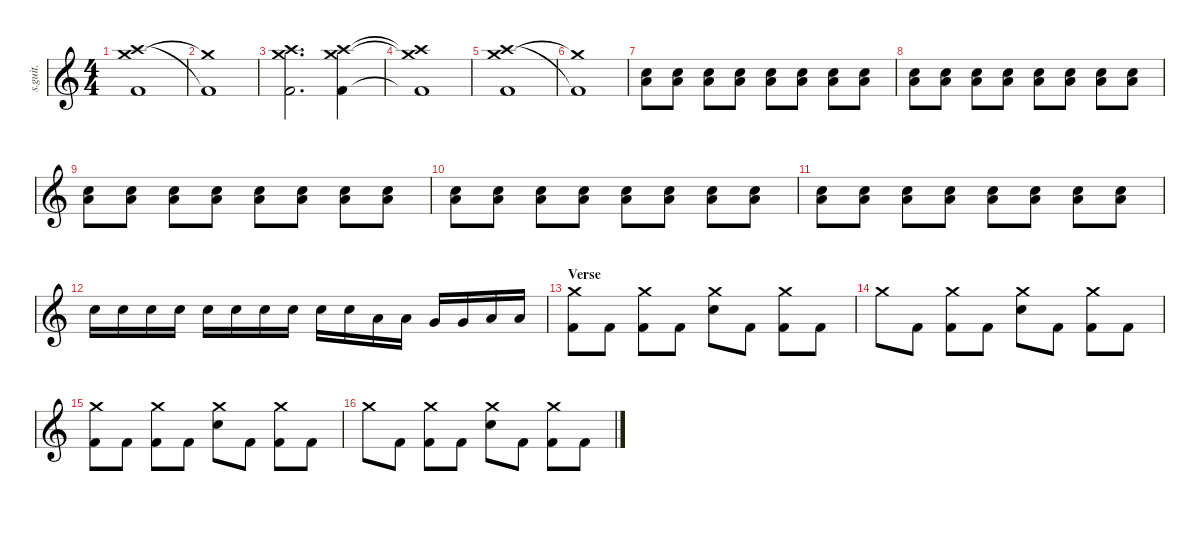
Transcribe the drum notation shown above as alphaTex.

\defaultSystemsLayout 4
\hideDynamics
\bracketExtendMode nobrackets
\track ("Taylor Hawkins" "s.guit.") {instrument percussion}
\staff {score}
\articulation defaults
\ts (4 4)
\tempo (154 hide)
\clef g2
\ks c
("Crash medium (hit)" "Crash high (hit)" "Kick (hit) 2").1{lyrics (0 "") lyrics (1 "") lyrics (2 "") lyrics (3 "") lyrics (4 "") dy f} |
("Crash medium (hit)"{t} "Kick (hit) 2"{t}).1{lyrics (0 "") lyrics (1 "") lyrics (2 "") lyrics (3 "") lyrics (4 "")} |
("Crash medium (hit)" "Crash high (hit)" "Kick (hit) 2").2{d lyrics (0 "") lyrics (1 "") lyrics (2 "") lyrics (3 "") lyrics (4 "")} ("Crash medium (hit)" "Crash high (hit)" "Kick (hit) 2").4{lyrics (0 "") lyrics (1 "") lyrics (2 "") lyrics (3 "") lyrics (4 "")} |
("Crash medium (hit)"{t} "Crash high (hit)"{t} "Kick (hit) 2"{t}).1{lyrics (0 "") lyrics (1 "") lyrics (2 "") lyrics (3 "") lyrics (4 "")} |
("Crash medium (hit)" "Crash high (hit)" "Kick (hit) 2").1{lyrics (0 "") lyrics (1 "") lyrics (2 "") lyrics (3 "") lyrics (4 "")} |
("Crash medium (hit)"{t} "Kick (hit) 2"{t}).1{lyrics (0 "") lyrics (1 "") lyrics (2 "") lyrics (3 "") lyrics (4 "")} |
("Electric Snare (hit)" "Low Floor Tom (hit)").8{lyrics (0 "") lyrics (1 "") lyrics (2 "") lyrics (3 "") lyrics (4 "")} ("Electric Snare (hit)" "Low Floor Tom (hit)").8{lyrics (0 "") lyrics (1 "") lyrics (2 "") lyrics (3 "") lyrics (4 "")} ("Electric Snare (hit)" "Low Floor Tom (hit)").8{lyrics (0 "") lyrics (1 "") lyrics (2 "") lyrics (3 "") lyrics (4 "")} ("Electric Snare (hit)" "Low Floor Tom (hit)").8{lyrics (0 "") lyrics (1 "") lyrics (2 "") lyrics (3 "") lyrics (4 "")} ("Electric Snare (hit)" "Low Floor Tom (hit)").8{lyrics (0 "") lyrics (1 "") lyrics (2 "") lyrics (3 "") lyrics (4 "")} ("Electric Snare (hit)" "Low Floor Tom (hit)").8{lyrics (0 "") lyrics (1 "") lyrics (2 "") lyrics (3 "") lyrics (4 "")} ("Electric Snare (hit)" "Low Floor Tom (hit)").8{lyrics (0 "") lyrics (1 "") lyrics (2 "") lyrics (3 "") lyrics (4 "")} ("Electric Snare (hit)" "Low Floor Tom (hit)").8{lyrics (0 "") lyrics (1 "") lyrics (2 "") lyrics (3 "") lyrics (4 "")} |
("Electric Snare (hit)" "Low Floor Tom (hit)").8{lyrics (0 "") lyrics (1 "") lyrics (2 "") lyrics (3 "") lyrics (4 "")} ("Electric Snare (hit)" "Low Floor Tom (hit)").8{lyrics (0 "") lyrics (1 "") lyrics (2 "") lyrics (3 "") lyrics (4 "")} ("Electric Snare (hit)" "Low Floor Tom (hit)").8{lyrics (0 "") lyrics (1 "") lyrics (2 "") lyrics (3 "") lyrics (4 "")} ("Electric Snare (hit)" "Low Floor Tom (hit)").8{lyrics (0 "") lyrics (1 "") lyrics (2 "") lyrics (3 "") lyrics (4 "")} ("Electric Snare (hit)" "Low Floor Tom (hit)").8{lyrics (0 "") lyrics (1 "") lyrics (2 "") lyrics (3 "") lyrics (4 "")} ("Electric Snare (hit)" "Low Floor Tom (hit)").8{lyrics (0 "") lyrics (1 "") lyrics (2 "") lyrics (3 "") lyrics (4 "")} ("Electric Snare (hit)" "Low Floor Tom (hit)").8{lyrics (0 "") lyrics (1 "") lyrics (2 "") lyrics (3 "") lyrics (4 "")} ("Electric Snare (hit)" "Low Floor Tom (hit)").8{lyrics (0 "") lyrics (1 "") lyrics (2 "") lyrics (3 "") lyrics (4 "")} |
("Electric Snare (hit)" "Low Floor Tom (hit)").8{lyrics (0 "") lyrics (1 "") lyrics (2 "") lyrics (3 "") lyrics (4 "")} ("Electric Snare (hit)" "Low Floor Tom (hit)").8{lyrics (0 "") lyrics (1 "") lyrics (2 "") lyrics (3 "") lyrics (4 "")} ("Electric Snare (hit)" "Low Floor Tom (hit)").8{lyrics (0 "") lyrics (1 "") lyrics (2 "") lyrics (3 "") lyrics (4 "")} ("Electric Snare (hit)" "Low Floor Tom (hit)").8{lyrics (0 "") lyrics (1 "") lyrics (2 "") lyrics (3 "") lyrics (4 "")} ("Electric Snare (hit)" "Low Floor Tom (hit)").8{lyrics (0 "") lyrics (1 "") lyrics (2 "") lyrics (3 "") lyrics (4 "")} ("Electric Snare (hit)" "Low Floor Tom (hit)").8{lyrics (0 "") lyrics (1 "") lyrics (2 "") lyrics (3 "") lyrics (4 "")} ("Electric Snare (hit)" "Low Floor Tom (hit)").8{lyrics (0 "") lyrics (1 "") lyrics (2 "") lyrics (3 "") lyrics (4 "")} ("Electric Snare (hit)" "Low Floor Tom (hit)").8{lyrics (0 "") lyrics (1 "") lyrics (2 "") lyrics (3 "") lyrics (4 "")} |
("Electric Snare (hit)" "Low Floor Tom (hit)").8{lyrics (0 "") lyrics (1 "") lyrics (2 "") lyrics (3 "") lyrics (4 "")} ("Electric Snare (hit)" "Low Floor Tom (hit)").8{lyrics (0 "") lyrics (1 "") lyrics (2 "") lyrics (3 "") lyrics (4 "")} ("Electric Snare (hit)" "Low Floor Tom (hit)").8{lyrics (0 "") lyrics (1 "") lyrics (2 "") lyrics (3 "") lyrics (4 "")} ("Electric Snare (hit)" "Low Floor Tom (hit)").8{lyrics (0 "") lyrics (1 "") lyrics (2 "") lyrics (3 "") lyrics (4 "")} ("Electric Snare (hit)" "Low Floor Tom (hit)").8{lyrics (0 "") lyrics (1 "") lyrics (2 "") lyrics (3 "") lyrics (4 "")} ("Electric Snare (hit)" "Low Floor Tom (hit)").8{lyrics (0 "") lyrics (1 "") lyrics (2 "") lyrics (3 "") lyrics (4 "")} ("Electric Snare (hit)" "Low Floor Tom (hit)").8{lyrics (0 "") lyrics (1 "") lyrics (2 "") lyrics (3 "") lyrics (4 "")} ("Electric Snare (hit)" "Low Floor Tom (hit)").8{lyrics (0 "") lyrics (1 "") lyrics (2 "") lyrics (3 "") lyrics (4 "")} |
("Electric Snare (hit)" "Low Floor Tom (hit)").8{lyrics (0 "") lyrics (1 "") lyrics (2 "") lyrics (3 "") lyrics (4 "")} ("Electric Snare (hit)" "Low Floor Tom (hit)").8{lyrics (0 "") lyrics (1 "") lyrics (2 "") lyrics (3 "") lyrics (4 "")} ("Electric Snare (hit)" "Low Floor Tom (hit)").8{lyrics (0 "") lyrics (1 "") lyrics (2 "") lyrics (3 "") lyrics (4 "")} ("Electric Snare (hit)" "Low Floor Tom (hit)").8{lyrics (0 "") lyrics (1 "") lyrics (2 "") lyrics (3 "") lyrics (4 "")} ("Electric Snare (hit)" "Low Floor Tom (hit)").8{lyrics (0 "") lyrics (1 "") lyrics (2 "") lyrics (3 "") lyrics (4 "")} ("Electric Snare (hit)" "Low Floor Tom (hit)").8{lyrics (0 "") lyrics (1 "") lyrics (2 "") lyrics (3 "") lyrics (4 "")} ("Electric Snare (hit)" "Low Floor Tom (hit)").8{lyrics (0 "") lyrics (1 "") lyrics (2 "") lyrics (3 "") lyrics (4 "")} ("Electric Snare (hit)" "Low Floor Tom (hit)").8{lyrics (0 "") lyrics (1 "") lyrics (2 "") lyrics (3 "") lyrics (4 "")} |
"Electric Snare (hit)".16{lyrics (0 "") lyrics (1 "") lyrics (2 "") lyrics (3 "") lyrics (4 "")} "Electric Snare (hit)".16{lyrics (0 "") lyrics (1 "") lyrics (2 "") lyrics (3 "") lyrics (4 "")} "Electric Snare (hit)".16{lyrics (0 "") lyrics (1 "") lyrics (2 "") lyrics (3 "") lyrics (4 "")} "Electric Snare (hit)".16{lyrics (0 "") lyrics (1 "") lyrics (2 "") lyrics (3 "") lyrics (4 "")} "Electric Snare (hit)".16{lyrics (0 "") lyrics (1 "") lyrics (2 "") lyrics (3 "") lyrics (4 "")} "Electric Snare (hit)".16{lyrics (0 "") lyrics (1 "") lyrics (2 "") lyrics (3 "") lyrics (4 "")} "Electric Snare (hit)".16{lyrics (0 "") lyrics (1 "") lyrics (2 "") lyrics (3 "") lyrics (4 "")} "Electric Snare (hit)".16{lyrics (0 "") lyrics (1 "") lyrics (2 "") lyrics (3 "") lyrics (4 "")} "Electric Snare (hit)".16{lyrics (0 "") lyrics (1 "") lyrics (2 "") lyrics (3 "") lyrics (4 "")} "Electric Snare (hit)".16{lyrics (0 "") lyrics (1 "") lyrics (2 "") lyrics (3 "") lyrics (4 "")} "Low Tom (hit)".16{lyrics (0 "") lyrics (1 "") lyrics (2 "") lyrics (3 "") lyrics (4 "")} "Low Tom (hit)".16{lyrics (0 "") lyrics (1 "") lyrics (2 "") lyrics (3 "") lyrics (4 "")} "Very Low Tom (hit)".16{lyrics (0 "") lyrics (1 "") lyrics (2 "") lyrics (3 "") lyrics (4 "")} "Very Low Tom (hit)".16{lyrics (0 "") lyrics (1 "") lyrics (2 "") lyrics (3 "") lyrics (4 "")} "Low Tom (hit)".16{lyrics (0 "") lyrics (1 "") lyrics (2 "") lyrics (3 "") lyrics (4 "")} "Low Tom (hit)".16{lyrics (0 "") lyrics (1 "") lyrics (2 "") lyrics (3 "") lyrics (4 "")} |
\section ("" "Verse")
("Crash medium (hit)" "Kick (hit) 2").8{lyrics (0 "") lyrics (1 "") lyrics (2 "") lyrics (3 "") lyrics (4 "")} "Kick (hit) 2".8{lyrics (0 "") lyrics (1 "") lyrics (2 "") lyrics (3 "") lyrics (4 "")} ("Crash medium (hit)" "Kick (hit) 2").8{lyrics (0 "") lyrics (1 "") lyrics (2 "") lyrics (3 "") lyrics (4 "")} "Kick (hit) 2".8{lyrics (0 "") lyrics (1 "") lyrics (2 "") lyrics (3 "") lyrics (4 "")} ("Crash medium (hit)" "Electric Snare (hit)").8{lyrics (0 "") lyrics (1 "") lyrics (2 "") lyrics (3 "") lyrics (4 "")} "Kick (hit) 2".8{lyrics (0 "") lyrics (1 "") lyrics (2 "") lyrics (3 "") lyrics (4 "")} ("Crash medium (hit)" "Kick (hit) 2").8{lyrics (0 "") lyrics (1 "") lyrics (2 "") lyrics (3 "") lyrics (4 "")} "Kick (hit) 2".8{lyrics (0 "") lyrics (1 "") lyrics (2 "") lyrics (3 "") lyrics (4 "")} |
"Crash medium (hit)".8{lyrics (0 "") lyrics (1 "") lyrics (2 "") lyrics (3 "") lyrics (4 "")} "Kick (hit) 2".8{lyrics (0 "") lyrics (1 "") lyrics (2 "") lyrics (3 "") lyrics (4 "")} ("Crash medium (hit)" "Kick (hit) 2").8{lyrics (0 "") lyrics (1 "") lyrics (2 "") lyrics (3 "") lyrics (4 "")} "Kick (hit) 2".8{lyrics (0 "") lyrics (1 "") lyrics (2 "") lyrics (3 "") lyrics (4 "")} ("Crash medium (hit)" "Electric Snare (hit)").8{lyrics (0 "") lyrics (1 "") lyrics (2 "") lyrics (3 "") lyrics (4 "")} "Kick (hit) 2".8{lyrics (0 "") lyrics (1 "") lyrics (2 "") lyrics (3 "") lyrics (4 "")} ("Crash medium (hit)" "Kick (hit) 2").8{lyrics (0 "") lyrics (1 "") lyrics (2 "") lyrics (3 "") lyrics (4 "")} "Kick (hit) 2".8{lyrics (0 "") lyrics (1 "") lyrics (2 "") lyrics (3 "") lyrics (4 "")} |
("Crash medium (hit)" "Kick (hit) 2").8{lyrics (0 "") lyrics (1 "") lyrics (2 "") lyrics (3 "") lyrics (4 "")} "Kick (hit) 2".8{lyrics (0 "") lyrics (1 "") lyrics (2 "") lyrics (3 "") lyrics (4 "")} ("Crash medium (hit)" "Kick (hit) 2").8{lyrics (0 "") lyrics (1 "") lyrics (2 "") lyrics (3 "") lyrics (4 "")} "Kick (hit) 2".8{lyrics (0 "") lyrics (1 "") lyrics (2 "") lyrics (3 "") lyrics (4 "")} ("Crash medium (hit)" "Electric Snare (hit)").8{lyrics (0 "") lyrics (1 "") lyrics (2 "") lyrics (3 "") lyrics (4 "")} "Kick (hit) 2".8{lyrics (0 "") lyrics (1 "") lyrics (2 "") lyrics (3 "") lyrics (4 "")} ("Crash medium (hit)" "Kick (hit) 2").8{lyrics (0 "") lyrics (1 "") lyrics (2 "") lyrics (3 "") lyrics (4 "")} "Kick (hit) 2".8{lyrics (0 "") lyrics (1 "") lyrics (2 "") lyrics (3 "") lyrics (4 "")} |
"Crash medium (hit)".8{lyrics (0 "") lyrics (1 "") lyrics (2 "") lyrics (3 "") lyrics (4 "")} "Kick (hit) 2".8{lyrics (0 "") lyrics (1 "") lyrics (2 "") lyrics (3 "") lyrics (4 "")} ("Crash medium (hit)" "Kick (hit) 2").8{lyrics (0 "") lyrics (1 "") lyrics (2 "") lyrics (3 "") lyrics (4 "")} "Kick (hit) 2".8{lyrics (0 "") lyrics (1 "") lyrics (2 "") lyrics (3 "") lyrics (4 "")} ("Crash medium (hit)" "Electric Snare (hit)").8{lyrics (0 "") lyrics (1 "") lyrics (2 "") lyrics (3 "") lyrics (4 "")} "Kick (hit) 2".8{lyrics (0 "") lyrics (1 "") lyrics (2 "") lyrics (3 "") lyrics (4 "")} ("Crash medium (hit)" "Kick (hit) 2").8{lyrics (0 "") lyrics (1 "") lyrics (2 "") lyrics (3 "") lyrics (4 "")} "Kick (hit) 2".8{lyrics (0 "") lyrics (1 "") lyrics (2 "") lyrics (3 "") lyrics (4 "")}
